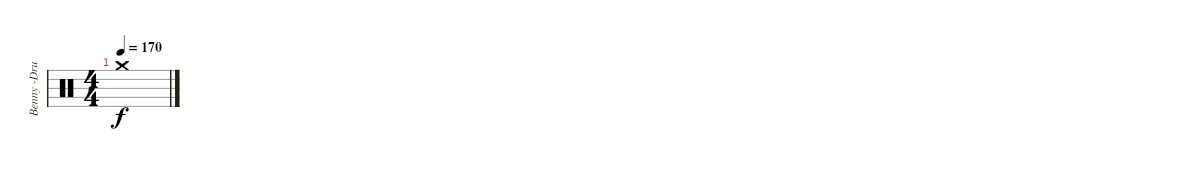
\track ("Benny -Drums" "Benny -Dru") {instrument percussion}
\staff {score}
\articulation defaults
\ts (4 4)
\tempo 170
\clef neutral
\ks c "Crash medium (hit)".1{dy f}
